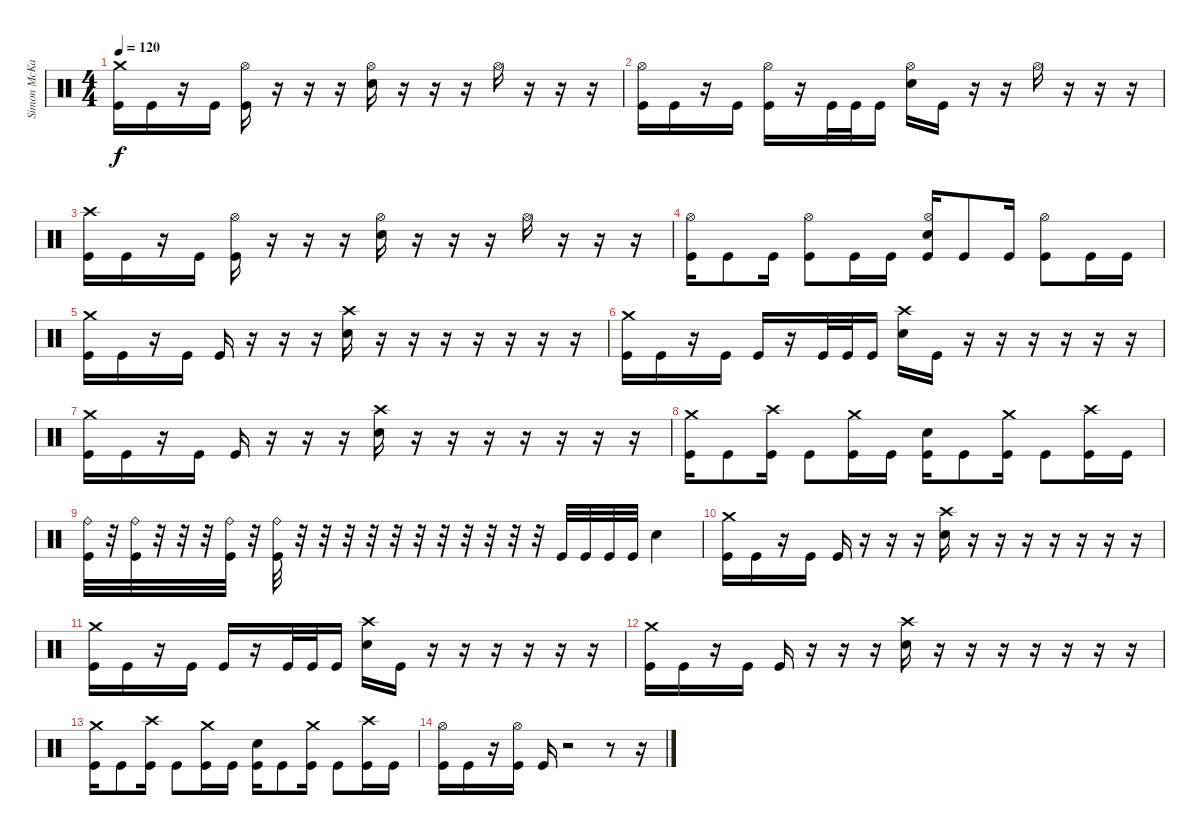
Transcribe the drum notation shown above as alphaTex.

\track ("Simon McKay" "Simon McKa") {instrument percussion}
\staff {score}
\articulation defaults
\ts (4 4)
\tempo 120
\clef neutral
\ks c
("Crash medium (hit)" "Kick (hit)").16{dy f} "Kick (hit)".16 r.16 "Kick (hit)".16 ("Hi-Hat (open)" "Kick (hit)").16 r.16 r.16 r.16 ("Hi-Hat (open)" "Electric Snare (hit)").16 r.16 r.16 r.16 "Hi-Hat (open)".16 r.16 r.16 r.16 |
("Hi-Hat (open)" "Kick (hit)").16 "Kick (hit)".16 r.16 "Kick (hit)".16 ("Hi-Hat (open)" "Kick (hit)").16 r.16 "Kick (hit)".32 "Kick (hit)".32 "Kick (hit)".16 ("Hi-Hat (open)" "Electric Snare (hit)").16 "Kick (hit)".16 r.16 r.16 "Hi-Hat (open)".16 r.16 r.16 r.16 |
("Crash high (hit)" "Kick (hit)").16 "Kick (hit)".16 r.16 "Kick (hit)".16 ("Hi-Hat (open)" "Kick (hit)").16 r.16 r.16 r.16 ("Hi-Hat (open)" "Electric Snare (hit)").16 r.16 r.16 r.16 "Hi-Hat (open)".16 r.16 r.16 r.16 |
("Hi-Hat (open)" "Kick (hit)").16 "Kick (hit)".8 "Kick (hit)".16 ("Hi-Hat (open)" "Kick (hit)").8 "Kick (hit)".16 "Kick (hit)".16 ("Hi-Hat (open)" "Electric Snare (hit)" "Kick (hit)").16 "Kick (hit)".8 "Kick (hit)".16 ("Hi-Hat (open)" "Kick (hit)").8 "Kick (hit)".16 "Kick (hit)".16 |
("Crash medium (hit)" "Kick (hit)").16 "Kick (hit)".16 r.16 "Kick (hit)".16 "Kick (hit)".16 r.16 r.16 r.16 ("Crash high (hit)" "Electric Snare (hit)").16 r.16 r.16 r.16 r.16 r.16 r.16 r.16 |
("Crash medium (hit)" "Kick (hit)").16 "Kick (hit)".16 r.16 "Kick (hit)".16 "Kick (hit)".16 r.16 "Kick (hit)".32 "Kick (hit)".32 "Kick (hit)".16 ("Crash high (hit)" "Electric Snare (hit)").16 "Kick (hit)".16 r.16 r.16 r.16 r.16 r.16 r.16 |
("Crash medium (hit)" "Kick (hit)").16 "Kick (hit)".16 r.16 "Kick (hit)".16 "Kick (hit)".16 r.16 r.16 r.16 ("Crash high (hit)" "Electric Snare (hit)").16 r.16 r.16 r.16 r.16 r.16 r.16 r.16 |
("Crash medium (hit)" "Kick (hit)").16 "Kick (hit)".8 ("Crash high (hit)" "Kick (hit)").16 "Kick (hit)".8 ("Crash medium (hit)" "Kick (hit)").16 "Kick (hit)".16 ("Electric Snare (hit)" "Kick (hit)").16 "Kick (hit)".8 ("Crash medium (hit)" "Kick (hit)").16 "Kick (hit)".8 ("Crash high (hit)" "Kick (hit)").16 "Kick (hit)".16 |
("Ride (bell)" "Kick (hit)").32 r.32 ("Ride (bell)" "Kick (hit)").32 r.32 r.32 r.32 ("Ride (bell)" "Kick (hit)").32 r.32 ("Ride (bell)" "Kick (hit)").32 r.32 r.32 r.32 r.32 r.32 r.32 r.32 r.32 r.32 r.32 r.32 "Kick (hit)".32 "Kick (hit)".32 "Kick (hit)".32 "Kick (hit)".32 "Electric Snare (hit)".4 |
("Crash medium (hit)" "Kick (hit)").16 "Kick (hit)".16 r.16 "Kick (hit)".16 "Kick (hit)".16 r.16 r.16 r.16 ("Crash high (hit)" "Electric Snare (hit)").16 r.16 r.16 r.16 r.16 r.16 r.16 r.16 |
("Crash medium (hit)" "Kick (hit)").16 "Kick (hit)".16 r.16 "Kick (hit)".16 "Kick (hit)".16 r.16 "Kick (hit)".32 "Kick (hit)".32 "Kick (hit)".16 ("Crash high (hit)" "Electric Snare (hit)").16 "Kick (hit)".16 r.16 r.16 r.16 r.16 r.16 r.16 |
("Crash medium (hit)" "Kick (hit)").16 "Kick (hit)".16 r.16 "Kick (hit)".16 "Kick (hit)".16 r.16 r.16 r.16 ("Crash high (hit)" "Electric Snare (hit)").16 r.16 r.16 r.16 r.16 r.16 r.16 r.16 |
("Crash medium (hit)" "Kick (hit)").16 "Kick (hit)".8 ("Crash high (hit)" "Kick (hit)").16 "Kick (hit)".8 ("Crash medium (hit)" "Kick (hit)").16 "Kick (hit)".16 ("Electric Snare (hit)" "Kick (hit)").16 "Kick (hit)".8 ("Crash medium (hit)" "Kick (hit)").16 "Kick (hit)".8 ("Crash high (hit)" "Kick (hit)").16 "Kick (hit)".16 |
("Hi-Hat (open)" "Kick (hit)").16 "Kick (hit)".16 r.16 ("Hi-Hat (open)" "Kick (hit)").16 "Kick (hit)".16 r.2 r.8 r.16
